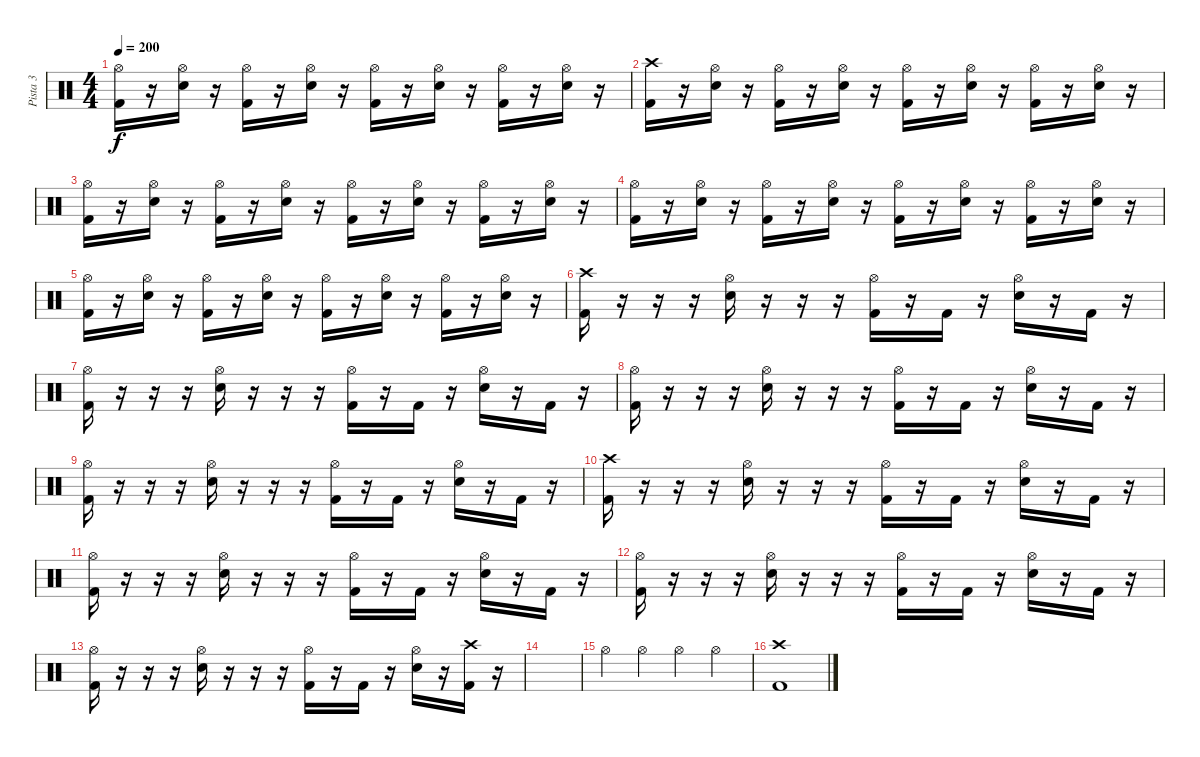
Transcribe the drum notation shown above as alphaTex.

\track ("Pista 3" "Pista 3") {instrument percussion}
\staff {score}
\articulation defaults
\ts (4 4)
\tempo 200
\clef neutral
\ks c
("Hi-Hat (open)" "Kick (hit) 2").16{dy f} r.16 ("Hi-Hat (open)" "Electric Snare (hit)").16 r.16 ("Hi-Hat (open)" "Kick (hit) 2").16 r.16 ("Hi-Hat (open)" "Electric Snare (hit)").16 r.16 ("Hi-Hat (open)" "Kick (hit) 2").16 r.16 ("Hi-Hat (open)" "Electric Snare (hit)").16 r.16 ("Hi-Hat (open)" "Kick (hit) 2").16 r.16 ("Hi-Hat (open)" "Electric Snare (hit)").16 r.16 |
("Crash high (hit)" "Kick (hit) 2").16 r.16 ("Hi-Hat (open)" "Electric Snare (hit)").16 r.16 ("Hi-Hat (open)" "Kick (hit) 2").16 r.16 ("Hi-Hat (open)" "Electric Snare (hit)").16 r.16 ("Hi-Hat (open)" "Kick (hit) 2").16 r.16 ("Hi-Hat (open)" "Electric Snare (hit)").16 r.16 ("Hi-Hat (open)" "Kick (hit) 2").16 r.16 ("Hi-Hat (open)" "Electric Snare (hit)").16 r.16 |
("Hi-Hat (open)" "Kick (hit) 2").16 r.16 ("Hi-Hat (open)" "Electric Snare (hit)").16 r.16 ("Hi-Hat (open)" "Kick (hit) 2").16 r.16 ("Hi-Hat (open)" "Electric Snare (hit)").16 r.16 ("Hi-Hat (open)" "Kick (hit) 2").16 r.16 ("Hi-Hat (open)" "Electric Snare (hit)").16 r.16 ("Hi-Hat (open)" "Kick (hit) 2").16 r.16 ("Hi-Hat (open)" "Electric Snare (hit)").16 r.16 |
("Hi-Hat (open)" "Kick (hit) 2").16 r.16 ("Hi-Hat (open)" "Electric Snare (hit)").16 r.16 ("Hi-Hat (open)" "Kick (hit) 2").16 r.16 ("Hi-Hat (open)" "Electric Snare (hit)").16 r.16 ("Hi-Hat (open)" "Kick (hit) 2").16 r.16 ("Hi-Hat (open)" "Electric Snare (hit)").16 r.16 ("Hi-Hat (open)" "Kick (hit) 2").16 r.16 ("Hi-Hat (open)" "Electric Snare (hit)").16 r.16 |
("Hi-Hat (open)" "Kick (hit) 2").16 r.16 ("Hi-Hat (open)" "Electric Snare (hit)").16 r.16 ("Hi-Hat (open)" "Kick (hit) 2").16 r.16 ("Hi-Hat (open)" "Electric Snare (hit)").16 r.16 ("Hi-Hat (open)" "Kick (hit) 2").16 r.16 ("Hi-Hat (open)" "Electric Snare (hit)").16 r.16 ("Hi-Hat (open)" "Kick (hit) 2").16 r.16 ("Hi-Hat (open)" "Electric Snare (hit)").16 r.16 |
("Crash high (hit)" "Kick (hit) 2").16 r.16 r.16 r.16 ("Hi-Hat (open)" "Electric Snare (hit)").16 r.16 r.16 r.16 ("Hi-Hat (open)" "Kick (hit) 2").16 r.16 "Kick (hit) 2".16 r.16 ("Hi-Hat (open)" "Electric Snare (hit)").16 r.16 "Kick (hit) 2".16 r.16 |
("Hi-Hat (open)" "Kick (hit) 2").16 r.16 r.16 r.16 ("Hi-Hat (open)" "Electric Snare (hit)").16 r.16 r.16 r.16 ("Hi-Hat (open)" "Kick (hit) 2").16 r.16 "Kick (hit) 2".16 r.16 ("Hi-Hat (open)" "Electric Snare (hit)").16 r.16 "Kick (hit) 2".16 r.16 |
("Hi-Hat (open)" "Kick (hit) 2").16 r.16 r.16 r.16 ("Hi-Hat (open)" "Electric Snare (hit)").16 r.16 r.16 r.16 ("Hi-Hat (open)" "Kick (hit) 2").16 r.16 "Kick (hit) 2".16 r.16 ("Hi-Hat (open)" "Electric Snare (hit)").16 r.16 "Kick (hit) 2".16 r.16 |
("Hi-Hat (open)" "Kick (hit) 2").16 r.16 r.16 r.16 ("Hi-Hat (open)" "Electric Snare (hit)").16 r.16 r.16 r.16 ("Hi-Hat (open)" "Kick (hit) 2").16 r.16 "Kick (hit) 2".16 r.16 ("Hi-Hat (open)" "Electric Snare (hit)").16 r.16 "Kick (hit) 2".16 r.16 |
("Crash high (hit)" "Kick (hit) 2").16 r.16 r.16 r.16 ("Hi-Hat (open)" "Electric Snare (hit)").16 r.16 r.16 r.16 ("Hi-Hat (open)" "Kick (hit) 2").16 r.16 "Kick (hit) 2".16 r.16 ("Hi-Hat (open)" "Electric Snare (hit)").16 r.16 "Kick (hit) 2".16 r.16 |
("Hi-Hat (open)" "Kick (hit) 2").16 r.16 r.16 r.16 ("Hi-Hat (open)" "Electric Snare (hit)").16 r.16 r.16 r.16 ("Hi-Hat (open)" "Kick (hit) 2").16 r.16 "Kick (hit) 2".16 r.16 ("Hi-Hat (open)" "Electric Snare (hit)").16 r.16 "Kick (hit) 2".16 r.16 |
("Hi-Hat (open)" "Kick (hit) 2").16 r.16 r.16 r.16 ("Hi-Hat (open)" "Electric Snare (hit)").16 r.16 r.16 r.16 ("Hi-Hat (open)" "Kick (hit) 2").16 r.16 "Kick (hit) 2".16 r.16 ("Hi-Hat (open)" "Electric Snare (hit)").16 r.16 "Kick (hit) 2".16 r.16 |
("Hi-Hat (open)" "Kick (hit) 2").16 r.16 r.16 r.16 ("Hi-Hat (open)" "Electric Snare (hit)").16 r.16 r.16 r.16 ("Hi-Hat (open)" "Kick (hit) 2").16 r.16 "Kick (hit) 2".16 r.16 ("Hi-Hat (open)" "Electric Snare (hit)").16 r.16 ("Crash high (hit)" "Kick (hit) 2").16 r.16 |
|
"Hi-Hat (open)".4 "Hi-Hat (open)".4 "Hi-Hat (open)".4 "Hi-Hat (open)".4 |
("Crash high (hit)" "Kick (hit) 2").1
